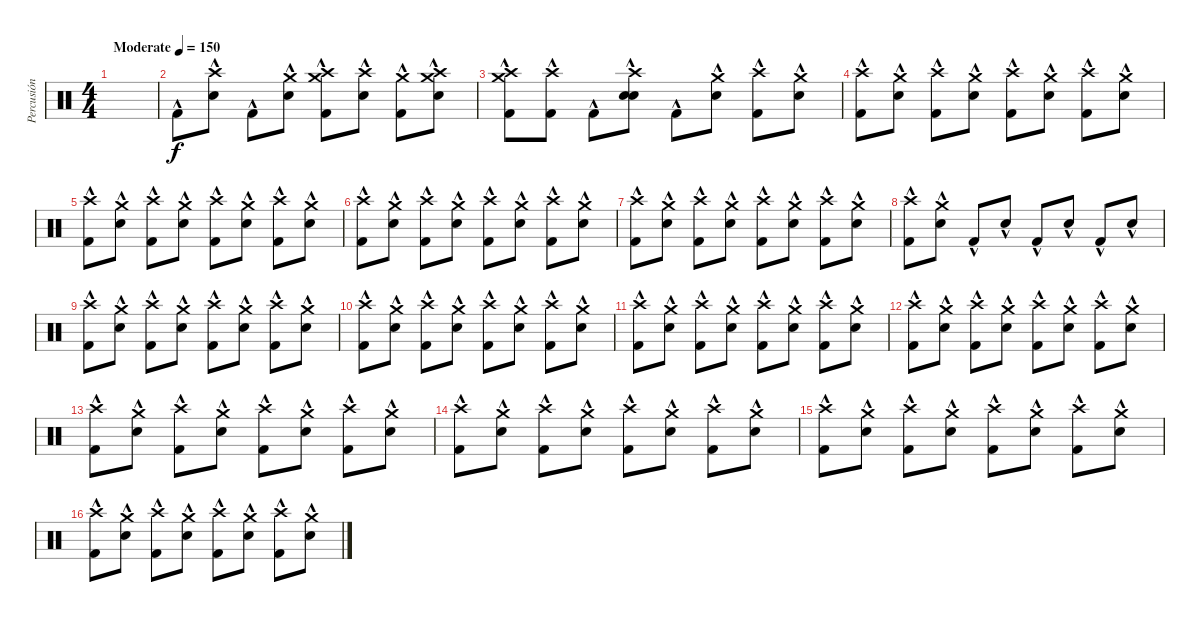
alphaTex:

\track ("Percusión" "Percusión") {instrument percussion}
\staff {score}
\articulation defaults
\ts (4 4)
\tempo (150 "Moderate")
\clef neutral
\ks c
|
"Kick (hit) 2"{hac}.8 ("Snare (hit) 2"{hac} "Crash high (hit)").8 "Kick (hit) 2"{hac}.8 ("Snare (hit) 2"{hac} "Crash medium (hit)").8 ("Kick (hit) 2"{hac} "Crash medium (hit)" "Crash high (hit)").8 ("Snare (hit) 2"{hac} "Crash high (hit)").8 ("Kick (hit) 2"{hac} "Crash medium (hit)").8 ("Snare (hit) 2"{hac} "Crash medium (hit)" "Crash high (hit)").8 |
("Kick (hit) 2"{hac} "Crash medium (hit)" "Crash high (hit)").8 ("Kick (hit) 2" "Crash high (hit)"{hac}).8 "Kick (hit) 2"{hac}.8 ("Snare (hit) 2"{hac} "Snare (hit)" "Crash high (hit)").8 "Kick (hit) 2"{hac}.8 ("Snare (hit) 2"{hac} "Crash medium (hit)").8 ("Kick (hit) 2"{hac} "Crash high (hit)").8 ("Snare (hit) 2"{hac} "Crash medium (hit)").8 |
("Kick (hit) 2"{hac} "Crash high (hit)").8 ("Snare (hit) 2"{hac} "Crash medium (hit)").8 ("Kick (hit) 2"{hac} "Crash high (hit)").8 ("Snare (hit) 2"{hac} "Crash medium (hit)").8 ("Kick (hit) 2"{hac} "Crash high (hit)").8 ("Snare (hit) 2"{hac} "Crash medium (hit)").8 ("Kick (hit) 2"{hac} "Crash high (hit)").8 ("Snare (hit) 2"{hac} "Crash medium (hit)").8 |
("Kick (hit) 2"{hac} "Crash high (hit)").8 ("Snare (hit) 2"{hac} "Crash medium (hit)").8 ("Kick (hit) 2"{hac} "Crash high (hit)").8 ("Snare (hit) 2"{hac} "Crash medium (hit)").8 ("Kick (hit) 2"{hac} "Crash high (hit)").8 ("Snare (hit) 2"{hac} "Crash medium (hit)").8 ("Kick (hit) 2"{hac} "Crash high (hit)").8 ("Snare (hit) 2"{hac} "Crash medium (hit)").8 |
("Kick (hit) 2"{hac} "Crash high (hit)").8 ("Snare (hit) 2"{hac} "Crash medium (hit)").8 ("Kick (hit) 2"{hac} "Crash high (hit)").8 ("Snare (hit) 2"{hac} "Crash medium (hit)").8 ("Kick (hit) 2"{hac} "Crash high (hit)").8 ("Snare (hit) 2"{hac} "Crash medium (hit)").8 ("Kick (hit) 2"{hac} "Crash high (hit)").8 ("Snare (hit) 2"{hac} "Crash medium (hit)").8 |
("Kick (hit) 2"{hac} "Crash high (hit)").8 ("Snare (hit) 2"{hac} "Crash medium (hit)").8 ("Kick (hit) 2"{hac} "Crash high (hit)").8 ("Snare (hit) 2"{hac} "Crash medium (hit)").8 ("Kick (hit) 2"{hac} "Crash high (hit)").8 ("Snare (hit) 2"{hac} "Crash medium (hit)").8 ("Kick (hit) 2"{hac} "Crash high (hit)").8 ("Snare (hit) 2"{hac} "Crash medium (hit)").8 |
("Kick (hit) 2"{hac} "Crash high (hit)").8 ("Snare (hit) 2"{hac} "Crash medium (hit)").8 "Kick (hit) 2"{hac}.8 "Snare (hit) 2"{hac}.8 "Kick (hit) 2"{hac}.8 "Snare (hit) 2"{hac}.8 "Kick (hit) 2"{hac}.8 "Snare (hit) 2"{hac}.8 |
("Kick (hit) 2"{hac} "Crash high (hit)").8 ("Snare (hit) 2"{hac} "Crash medium (hit)").8 ("Kick (hit) 2"{hac} "Crash high (hit)").8 ("Snare (hit) 2"{hac} "Crash medium (hit)").8 ("Kick (hit) 2"{hac} "Crash high (hit)").8 ("Snare (hit) 2"{hac} "Crash medium (hit)").8 ("Kick (hit) 2"{hac} "Crash high (hit)").8 ("Snare (hit) 2"{hac} "Crash medium (hit)").8 |
("Kick (hit) 2"{hac} "Crash high (hit)").8 ("Snare (hit) 2"{hac} "Crash medium (hit)").8 ("Kick (hit) 2"{hac} "Crash high (hit)").8 ("Snare (hit) 2"{hac} "Crash medium (hit)").8 ("Kick (hit) 2"{hac} "Crash high (hit)").8 ("Snare (hit) 2"{hac} "Crash medium (hit)").8 ("Kick (hit) 2"{hac} "Crash high (hit)").8 ("Snare (hit) 2"{hac} "Crash medium (hit)").8 |
("Kick (hit) 2"{hac} "Crash high (hit)").8 ("Snare (hit) 2"{hac} "Crash medium (hit)").8 ("Kick (hit) 2"{hac} "Crash high (hit)").8 ("Snare (hit) 2"{hac} "Crash medium (hit)").8 ("Kick (hit) 2"{hac} "Crash high (hit)").8 ("Snare (hit) 2"{hac} "Crash medium (hit)").8 ("Kick (hit) 2"{hac} "Crash high (hit)").8 ("Snare (hit) 2"{hac} "Crash medium (hit)").8 |
("Kick (hit) 2"{hac} "Crash high (hit)").8 ("Snare (hit) 2"{hac} "Crash medium (hit)").8 ("Kick (hit) 2"{hac} "Crash high (hit)").8 ("Snare (hit) 2"{hac} "Crash medium (hit)").8 ("Kick (hit) 2"{hac} "Crash high (hit)").8 ("Snare (hit) 2"{hac} "Crash medium (hit)").8 ("Kick (hit) 2"{hac} "Crash high (hit)").8 ("Snare (hit) 2"{hac} "Crash medium (hit)").8 |
("Kick (hit) 2"{hac} "Crash high (hit)").8 ("Snare (hit) 2"{hac} "Crash medium (hit)").8 ("Kick (hit) 2"{hac} "Crash high (hit)").8 ("Snare (hit) 2"{hac} "Crash medium (hit)").8 ("Kick (hit) 2"{hac} "Crash high (hit)").8 ("Snare (hit) 2"{hac} "Crash medium (hit)").8 ("Kick (hit) 2"{hac} "Crash high (hit)").8 ("Snare (hit) 2"{hac} "Crash medium (hit)").8 |
("Kick (hit) 2"{hac} "Crash high (hit)").8 ("Snare (hit) 2"{hac} "Crash medium (hit)").8 ("Kick (hit) 2"{hac} "Crash high (hit)").8 ("Snare (hit) 2"{hac} "Crash medium (hit)").8 ("Kick (hit) 2"{hac} "Crash high (hit)").8 ("Snare (hit) 2"{hac} "Crash medium (hit)").8 ("Kick (hit) 2"{hac} "Crash high (hit)").8 ("Snare (hit) 2"{hac} "Crash medium (hit)").8 |
("Kick (hit) 2"{hac} "Crash high (hit)").8 ("Snare (hit) 2"{hac} "Crash medium (hit)").8 ("Kick (hit) 2"{hac} "Crash high (hit)").8 ("Snare (hit) 2"{hac} "Crash medium (hit)").8 ("Kick (hit) 2"{hac} "Crash high (hit)").8 ("Snare (hit) 2"{hac} "Crash medium (hit)").8 ("Kick (hit) 2"{hac} "Crash high (hit)").8 ("Snare (hit) 2"{hac} "Crash medium (hit)").8 |
("Kick (hit) 2"{hac} "Crash high (hit)").8 ("Snare (hit) 2"{hac} "Crash medium (hit)").8 ("Kick (hit) 2"{hac} "Crash high (hit)").8 ("Snare (hit) 2"{hac} "Crash medium (hit)").8 ("Kick (hit) 2"{hac} "Crash high (hit)").8 ("Snare (hit) 2"{hac} "Crash medium (hit)").8 ("Kick (hit) 2"{hac} "Crash high (hit)").8 ("Snare (hit) 2"{hac} "Crash medium (hit)").8
